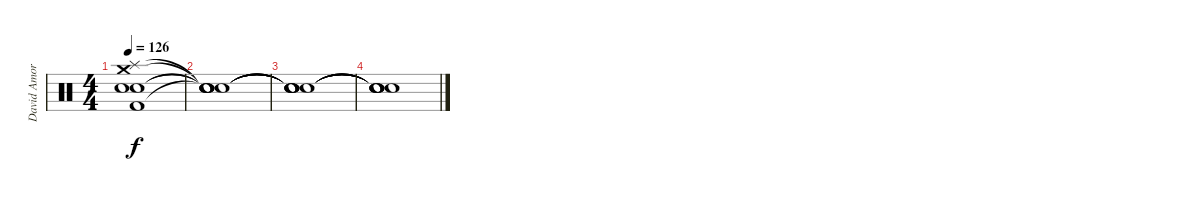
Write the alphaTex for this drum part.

\track ("David Amore" "David Amor") {instrument percussion}
\staff {score}
\articulation defaults
\ts (4 4)
\tempo 126
\clef neutral
\ks c
("Crash medium (hit)" "Splash (hit)" "Snare (hit) 2" "Electric Snare (hit)" "Kick (hit) 2").1{dy f} |
("Snare (hit)"{t} "Snare (hit)"{t} "Snare (hit)"{t} "Snare (hit)"{t} "Snare (hit)"{t}).1 |
("Snare (hit)"{t} "Snare (hit)"{t} "Snare (hit)"{t} "Snare (hit)"{t} "Snare (hit)"{t}).1 |
("Snare (hit)"{t} "Snare (hit)"{t} "Snare (hit)"{t} "Snare (hit)"{t} "Snare (hit)"{t}).1
